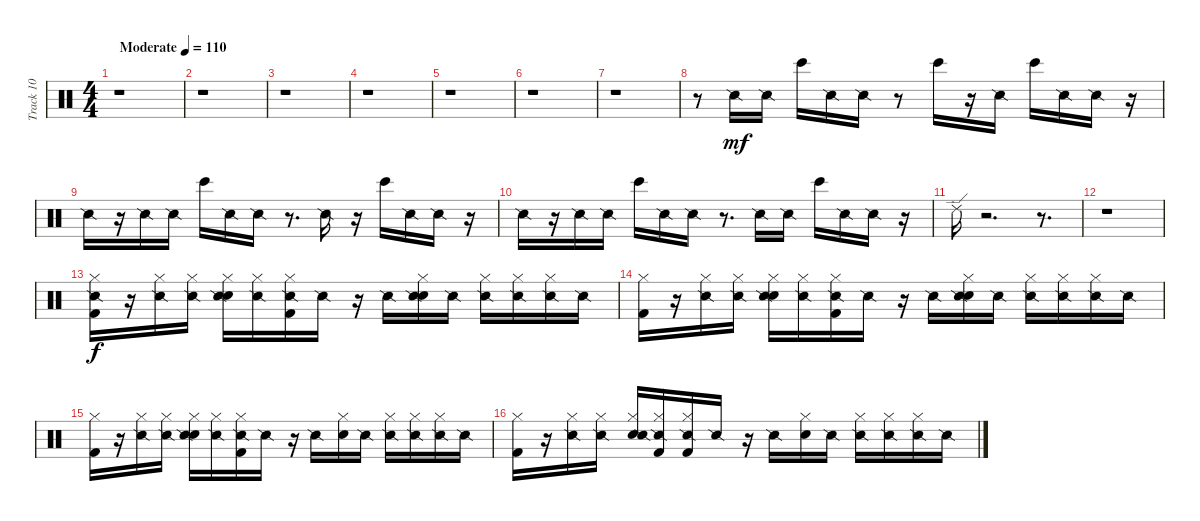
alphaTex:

\track ("Track 10" "Track 10") {instrument percussion}
\staff {score}
\articulation defaults
\ts (4 4)
\tempo (110 "Moderate")
\clef neutral
\ks c
r.1{dy mf} |
r.1 |
r.1 |
r.1 |
r.1 |
r.1 |
r.1 |
r.8 "Snare (side stick) 2".16 "Snare (side stick) 2".16 "Bongo High (hit)".16 "Snare (side stick) 2".16 "Snare (side stick) 2".16 r.8 "Bongo High (hit)".16 r.16 "Snare (side stick) 2".16 "Bongo High (hit)".16 "Snare (side stick) 2".16 "Snare (side stick) 2".16 r.16 |
"Snare (side stick) 2".16 r.16 "Snare (side stick) 2".16 "Snare (side stick) 2".16 "Bongo High (hit)".16 "Snare (side stick) 2".16 "Snare (side stick) 2".16 r.8{d} "Snare (side stick) 2".16 r.16 "Bongo High (hit)".16 "Snare (side stick) 2".16 "Snare (side stick) 2".16 r.16 |
"Snare (side stick) 2".16 r.16 "Snare (side stick) 2".16 "Snare (side stick) 2".16 "Bongo High (hit)".16 "Snare (side stick) 2".16 "Snare (side stick) 2".16 r.8{d} "Snare (side stick) 2".16 "Snare (side stick) 2".16 "Bongo High (hit)".16 "Snare (side stick) 2".16 "Snare (side stick) 2".16 r.16 |
"Ride (edge) 2".16 r.2{d} r.8{d} |
r.1 |
("Hi-Hat (closed)" "Snare (side stick) 2" "Kick (hit) 2").16{dy f} r.16 ("Hi-Hat (closed)" "Snare (side stick) 2").16 ("Hi-Hat (closed)" "Snare (side stick) 2").16 ("Electric Snare (hit)" "Hi-Hat (closed)" "Snare (side stick) 2").16 ("Hi-Hat (closed)" "Snare (side stick) 2").16 ("Hi-Hat (closed)" "Snare (side stick) 2" "Kick (hit) 2").16 "Snare (side stick) 2".16 r.16 "Snare (side stick) 2".16 ("Electric Snare (hit)" "Hi-Hat (closed)" "Snare (side stick) 2").16 "Snare (side stick) 2".16 ("Hi-Hat (closed)" "Snare (side stick) 2").16 ("Hi-Hat (closed)" "Snare (side stick) 2").16 ("Hi-Hat (closed)" "Snare (side stick) 2").16 "Snare (side stick) 2".16 |
("Hi-Hat (closed)" "Kick (hit) 2").16 r.16 ("Hi-Hat (closed)" "Snare (side stick) 2").16 ("Hi-Hat (closed)" "Snare (side stick) 2").16 ("Electric Snare (hit)" "Hi-Hat (closed)" "Snare (side stick) 2").16 ("Hi-Hat (closed)" "Snare (side stick) 2").16 ("Hi-Hat (closed)" "Snare (side stick) 2" "Kick (hit) 2").16 "Snare (side stick) 2".16 r.16 "Snare (side stick) 2".16 ("Electric Snare (hit)" "Hi-Hat (closed)" "Snare (side stick) 2").16 "Snare (side stick) 2".16 ("Hi-Hat (closed)" "Snare (side stick) 2").16 ("Hi-Hat (closed)" "Snare (side stick) 2").16 ("Hi-Hat (closed)" "Snare (side stick) 2").16 "Snare (side stick) 2".16 |
("Hi-Hat (closed)" "Kick (hit) 2").16 r.16 ("Hi-Hat (closed)" "Snare (side stick) 2").16 ("Hi-Hat (closed)" "Snare (side stick) 2").16 ("Electric Snare (hit)" "Hi-Hat (closed)" "Snare (side stick) 2").16 ("Hi-Hat (closed)" "Snare (side stick) 2").16 ("Hi-Hat (closed)" "Snare (side stick) 2" "Kick (hit) 2").16 "Snare (side stick) 2".16 r.16 "Snare (side stick) 2".16 ("Electric Snare (hit)" "Hi-Hat (closed)").16 "Snare (side stick) 2".16 ("Hi-Hat (closed)" "Snare (side stick) 2").16 ("Hi-Hat (closed)" "Snare (side stick) 2").16 ("Hi-Hat (closed)" "Snare (side stick) 2").16 "Snare (side stick) 2".16 |
("Hi-Hat (closed)" "Kick (hit) 2").16 r.16 ("Hi-Hat (closed)" "Snare (side stick) 2").16 ("Hi-Hat (closed)" "Snare (side stick) 2").16 ("Hi-Hat (closed)" "Electric Snare (hit)" "Snare (side stick) 2").16 ("Hi-Hat (closed)" "Snare (side stick) 2" "Kick (hit) 2").16 ("Hi-Hat (closed)" "Snare (side stick) 2" "Kick (hit) 2").16 "Snare (side stick) 2".16 r.16 "Snare (side stick) 2".16 ("Electric Snare (hit)" "Hi-Hat (closed)").16 "Snare (side stick) 2".16 ("Hi-Hat (closed)" "Snare (side stick) 2").16 ("Hi-Hat (closed)" "Snare (side stick) 2").16 ("Hi-Hat (closed)" "Snare (side stick) 2").16 "Snare (side stick) 2".16
